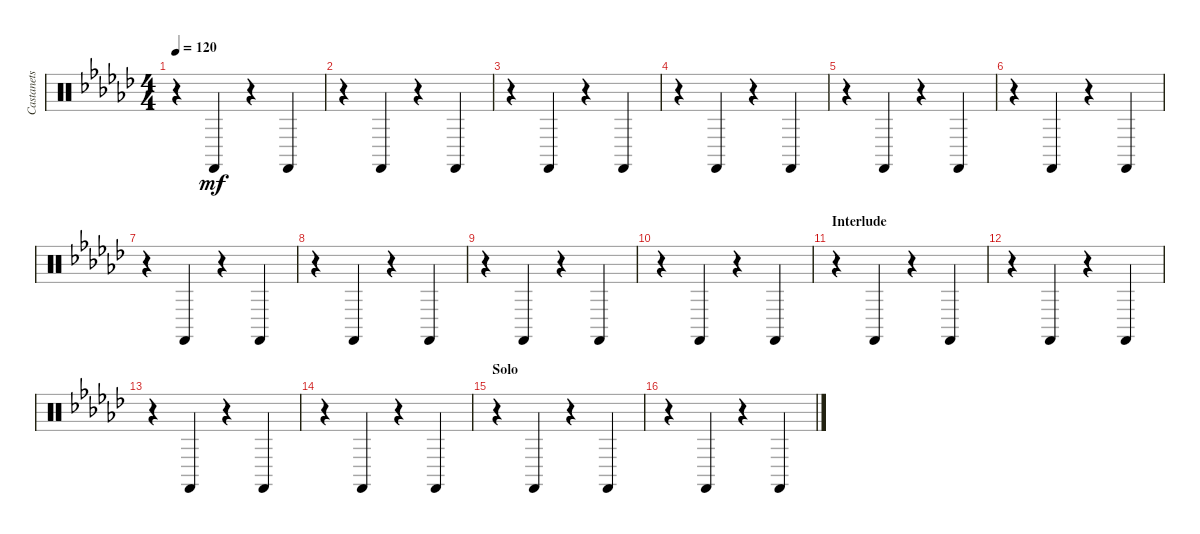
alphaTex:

\track ("Castanets" "Castanets") {instrument percussion}
\staff {score}
\articulation defaults
\ts (4 4)
\tempo 120
\clef neutral
\ks ebminor
r.4{dy mf} "Castanets (hit)".4 r.4 "Castanets (hit)".4 |
r.4 "Castanets (hit)".4 r.4 "Castanets (hit)".4 |
r.4 "Castanets (hit)".4 r.4 "Castanets (hit)".4 |
r.4 "Castanets (hit)".4 r.4 "Castanets (hit)".4 |
r.4 "Castanets (hit)".4 r.4 "Castanets (hit)".4 |
r.4 "Castanets (hit)".4 r.4 "Castanets (hit)".4 |
r.4 "Castanets (hit)".4 r.4 "Castanets (hit)".4 |
r.4 "Castanets (hit)".4 r.4 "Castanets (hit)".4 |
r.4 "Castanets (hit)".4 r.4 "Castanets (hit)".4 |
r.4 "Castanets (hit)".4 r.4 "Castanets (hit)".4 |
\section ("" "Interlude")
r.4 "Castanets (hit)".4 r.4 "Castanets (hit)".4 |
r.4 "Castanets (hit)".4 r.4 "Castanets (hit)".4 |
r.4 "Castanets (hit)".4 r.4 "Castanets (hit)".4 |
r.4 "Castanets (hit)".4 r.4 "Castanets (hit)".4 |
\section ("" "Solo")
r.4 "Castanets (hit)".4 r.4 "Castanets (hit)".4 |
r.4 "Castanets (hit)".4 r.4 "Castanets (hit)".4
